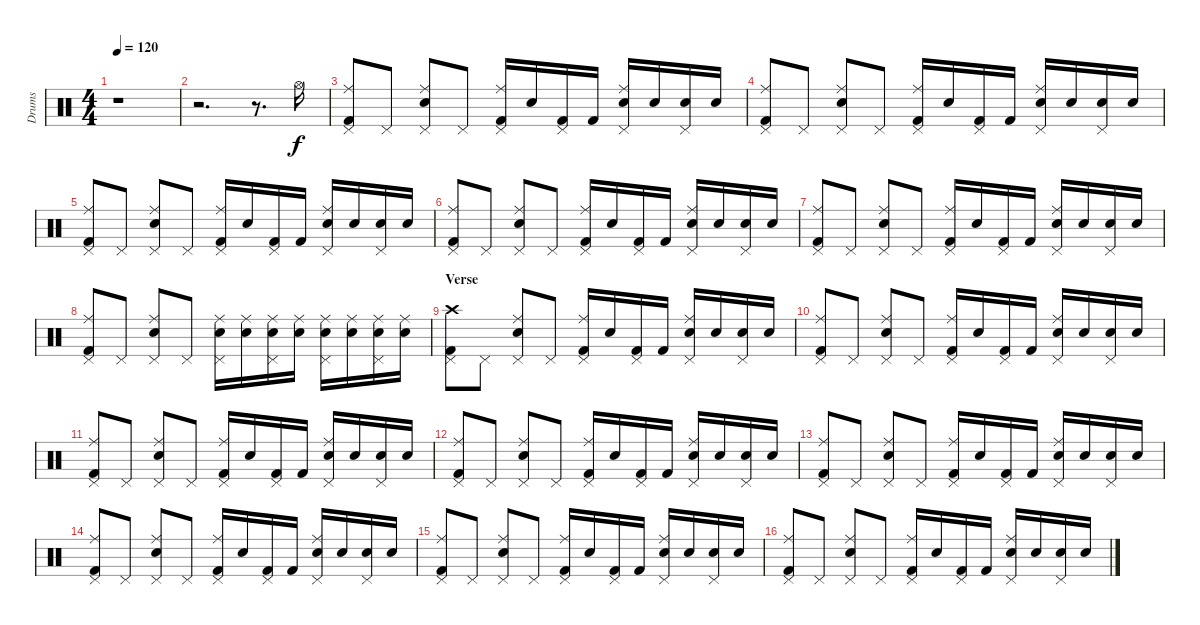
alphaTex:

\track ("Drums" "Drums") {instrument percussion}
\staff {score}
\articulation defaults
\ts (4 4)
\tempo 120
\clef neutral
\ks c
r.1{dy f} |
r.2{d} r.8{d} "Hi-Hat (open)".16 |
("Ride (middle)" "Kick (hit) 2" "Pedal Hi-Hat (hit)").8 "Pedal Hi-Hat (hit)".8 ("Ride (middle)" "Electric Snare (hit)" "Pedal Hi-Hat (hit)").8 "Pedal Hi-Hat (hit)".8 ("Ride (middle)" "Kick (hit) 2" "Pedal Hi-Hat (hit)").16 "Electric Snare (hit)".16 ("Kick (hit) 2" "Pedal Hi-Hat (hit)").16 "Kick (hit) 2".16 ("Ride (middle)" "Electric Snare (hit)" "Pedal Hi-Hat (hit)").16 "Electric Snare (hit)".16 ("Electric Snare (hit)" "Pedal Hi-Hat (hit)").16 "Electric Snare (hit)".16 |
("Ride (middle)" "Kick (hit) 2" "Pedal Hi-Hat (hit)").8 "Pedal Hi-Hat (hit)".8 ("Ride (middle)" "Electric Snare (hit)" "Pedal Hi-Hat (hit)").8 "Pedal Hi-Hat (hit)".8 ("Ride (middle)" "Kick (hit) 2" "Pedal Hi-Hat (hit)").16 "Electric Snare (hit)".16 ("Kick (hit) 2" "Pedal Hi-Hat (hit)").16 "Kick (hit) 2".16 ("Ride (middle)" "Electric Snare (hit)" "Pedal Hi-Hat (hit)").16 "Electric Snare (hit)".16 ("Electric Snare (hit)" "Pedal Hi-Hat (hit)").16 "Electric Snare (hit)".16 |
("Ride (middle)" "Kick (hit) 2" "Pedal Hi-Hat (hit)").8 "Pedal Hi-Hat (hit)".8 ("Ride (middle)" "Electric Snare (hit)" "Pedal Hi-Hat (hit)").8 "Pedal Hi-Hat (hit)".8 ("Ride (middle)" "Kick (hit) 2" "Pedal Hi-Hat (hit)").16 "Electric Snare (hit)".16 ("Kick (hit) 2" "Pedal Hi-Hat (hit)").16 "Kick (hit) 2".16 ("Ride (middle)" "Electric Snare (hit)" "Pedal Hi-Hat (hit)").16 "Electric Snare (hit)".16 ("Electric Snare (hit)" "Pedal Hi-Hat (hit)").16 "Electric Snare (hit)".16 |
("Ride (middle)" "Kick (hit) 2" "Pedal Hi-Hat (hit)").8 "Pedal Hi-Hat (hit)".8 ("Ride (middle)" "Electric Snare (hit)" "Pedal Hi-Hat (hit)").8 "Pedal Hi-Hat (hit)".8 ("Ride (middle)" "Kick (hit) 2" "Pedal Hi-Hat (hit)").16 "Electric Snare (hit)".16 ("Kick (hit) 2" "Pedal Hi-Hat (hit)").16 "Kick (hit) 2".16 ("Ride (middle)" "Electric Snare (hit)" "Pedal Hi-Hat (hit)").16 "Electric Snare (hit)".16 ("Electric Snare (hit)" "Pedal Hi-Hat (hit)").16 "Electric Snare (hit)".16 |
("Ride (middle)" "Kick (hit) 2" "Pedal Hi-Hat (hit)").8 "Pedal Hi-Hat (hit)".8 ("Ride (middle)" "Electric Snare (hit)" "Pedal Hi-Hat (hit)").8 "Pedal Hi-Hat (hit)".8 ("Ride (middle)" "Kick (hit) 2" "Pedal Hi-Hat (hit)").16 "Electric Snare (hit)".16 ("Kick (hit) 2" "Pedal Hi-Hat (hit)").16 "Kick (hit) 2".16 ("Ride (middle)" "Electric Snare (hit)" "Pedal Hi-Hat (hit)").16 "Electric Snare (hit)".16 ("Electric Snare (hit)" "Pedal Hi-Hat (hit)").16 "Electric Snare (hit)".16 |
("Ride (middle)" "Kick (hit) 2" "Pedal Hi-Hat (hit)").8 "Pedal Hi-Hat (hit)".8 ("Ride (middle)" "Electric Snare (hit)" "Pedal Hi-Hat (hit)").8 "Pedal Hi-Hat (hit)".8 ("Ride (middle)" "Electric Snare (hit)" "Pedal Hi-Hat (hit)").16 ("Ride (middle)" "Electric Snare (hit)").16 ("Ride (middle)" "Electric Snare (hit)" "Pedal Hi-Hat (hit)").16 ("Ride (middle)" "Electric Snare (hit)").16 ("Ride (middle)" "Electric Snare (hit)" "Pedal Hi-Hat (hit)").16 ("Ride (middle)" "Electric Snare (hit)").16 ("Ride (middle)" "Electric Snare (hit)" "Pedal Hi-Hat (hit)").16 ("Ride (middle)" "Electric Snare (hit)").16 |
\section ("" "Verse")
("Crash high (hit)" "Kick (hit) 2" "Pedal Hi-Hat (hit)").8 "Pedal Hi-Hat (hit)".8 ("Ride (middle)" "Electric Snare (hit)" "Pedal Hi-Hat (hit)").8 "Pedal Hi-Hat (hit)".8 ("Ride (middle)" "Kick (hit) 2" "Pedal Hi-Hat (hit)").16 "Electric Snare (hit)".16 ("Kick (hit) 2" "Pedal Hi-Hat (hit)").16 "Kick (hit) 2".16 ("Ride (middle)" "Electric Snare (hit)" "Pedal Hi-Hat (hit)").16 "Electric Snare (hit)".16 ("Electric Snare (hit)" "Pedal Hi-Hat (hit)").16 "Electric Snare (hit)".16 |
("Ride (middle)" "Kick (hit) 2" "Pedal Hi-Hat (hit)").8 "Pedal Hi-Hat (hit)".8 ("Ride (middle)" "Electric Snare (hit)" "Pedal Hi-Hat (hit)").8 "Pedal Hi-Hat (hit)".8 ("Ride (middle)" "Kick (hit) 2" "Pedal Hi-Hat (hit)").16 "Electric Snare (hit)".16 ("Kick (hit) 2" "Pedal Hi-Hat (hit)").16 "Kick (hit) 2".16 ("Ride (middle)" "Electric Snare (hit)" "Pedal Hi-Hat (hit)").16 "Electric Snare (hit)".16 ("Electric Snare (hit)" "Pedal Hi-Hat (hit)").16 "Electric Snare (hit)".16 |
("Ride (middle)" "Kick (hit) 2" "Pedal Hi-Hat (hit)").8 "Pedal Hi-Hat (hit)".8 ("Ride (middle)" "Electric Snare (hit)" "Pedal Hi-Hat (hit)").8 "Pedal Hi-Hat (hit)".8 ("Ride (middle)" "Kick (hit) 2" "Pedal Hi-Hat (hit)").16 "Electric Snare (hit)".16 ("Kick (hit) 2" "Pedal Hi-Hat (hit)").16 "Kick (hit) 2".16 ("Ride (middle)" "Electric Snare (hit)" "Pedal Hi-Hat (hit)").16 "Electric Snare (hit)".16 ("Electric Snare (hit)" "Pedal Hi-Hat (hit)").16 "Electric Snare (hit)".16 |
("Ride (middle)" "Kick (hit) 2" "Pedal Hi-Hat (hit)").8 "Pedal Hi-Hat (hit)".8 ("Ride (middle)" "Electric Snare (hit)" "Pedal Hi-Hat (hit)").8 "Pedal Hi-Hat (hit)".8 ("Ride (middle)" "Kick (hit) 2" "Pedal Hi-Hat (hit)").16 "Electric Snare (hit)".16 ("Kick (hit) 2" "Pedal Hi-Hat (hit)").16 "Kick (hit) 2".16 ("Ride (middle)" "Electric Snare (hit)" "Pedal Hi-Hat (hit)").16 "Electric Snare (hit)".16 ("Electric Snare (hit)" "Pedal Hi-Hat (hit)").16 "Electric Snare (hit)".16 |
("Ride (middle)" "Kick (hit) 2" "Pedal Hi-Hat (hit)").8 "Pedal Hi-Hat (hit)".8 ("Ride (middle)" "Electric Snare (hit)" "Pedal Hi-Hat (hit)").8 "Pedal Hi-Hat (hit)".8 ("Ride (middle)" "Kick (hit) 2" "Pedal Hi-Hat (hit)").16 "Electric Snare (hit)".16 ("Kick (hit) 2" "Pedal Hi-Hat (hit)").16 "Kick (hit) 2".16 ("Ride (middle)" "Electric Snare (hit)" "Pedal Hi-Hat (hit)").16 "Electric Snare (hit)".16 ("Electric Snare (hit)" "Pedal Hi-Hat (hit)").16 "Electric Snare (hit)".16 |
("Ride (middle)" "Kick (hit) 2" "Pedal Hi-Hat (hit)").8 "Pedal Hi-Hat (hit)".8 ("Ride (middle)" "Electric Snare (hit)" "Pedal Hi-Hat (hit)").8 "Pedal Hi-Hat (hit)".8 ("Ride (middle)" "Kick (hit) 2" "Pedal Hi-Hat (hit)").16 "Electric Snare (hit)".16 ("Kick (hit) 2" "Pedal Hi-Hat (hit)").16 "Kick (hit) 2".16 ("Ride (middle)" "Electric Snare (hit)" "Pedal Hi-Hat (hit)").16 "Electric Snare (hit)".16 ("Electric Snare (hit)" "Pedal Hi-Hat (hit)").16 "Electric Snare (hit)".16 |
("Ride (middle)" "Kick (hit) 2" "Pedal Hi-Hat (hit)").8 "Pedal Hi-Hat (hit)".8 ("Ride (middle)" "Electric Snare (hit)" "Pedal Hi-Hat (hit)").8 "Pedal Hi-Hat (hit)".8 ("Ride (middle)" "Kick (hit) 2" "Pedal Hi-Hat (hit)").16 "Electric Snare (hit)".16 ("Kick (hit) 2" "Pedal Hi-Hat (hit)").16 "Kick (hit) 2".16 ("Ride (middle)" "Electric Snare (hit)" "Pedal Hi-Hat (hit)").16 "Electric Snare (hit)".16 ("Electric Snare (hit)" "Pedal Hi-Hat (hit)").16 "Electric Snare (hit)".16 |
("Ride (middle)" "Kick (hit) 2" "Pedal Hi-Hat (hit)").8 "Pedal Hi-Hat (hit)".8 ("Ride (middle)" "Electric Snare (hit)" "Pedal Hi-Hat (hit)").8 "Pedal Hi-Hat (hit)".8 ("Ride (middle)" "Kick (hit) 2" "Pedal Hi-Hat (hit)").16 "Electric Snare (hit)".16 ("Kick (hit) 2" "Pedal Hi-Hat (hit)").16 "Kick (hit) 2".16 ("Ride (middle)" "Electric Snare (hit)" "Pedal Hi-Hat (hit)").16 "Electric Snare (hit)".16 ("Electric Snare (hit)" "Pedal Hi-Hat (hit)").16 "Electric Snare (hit)".16
